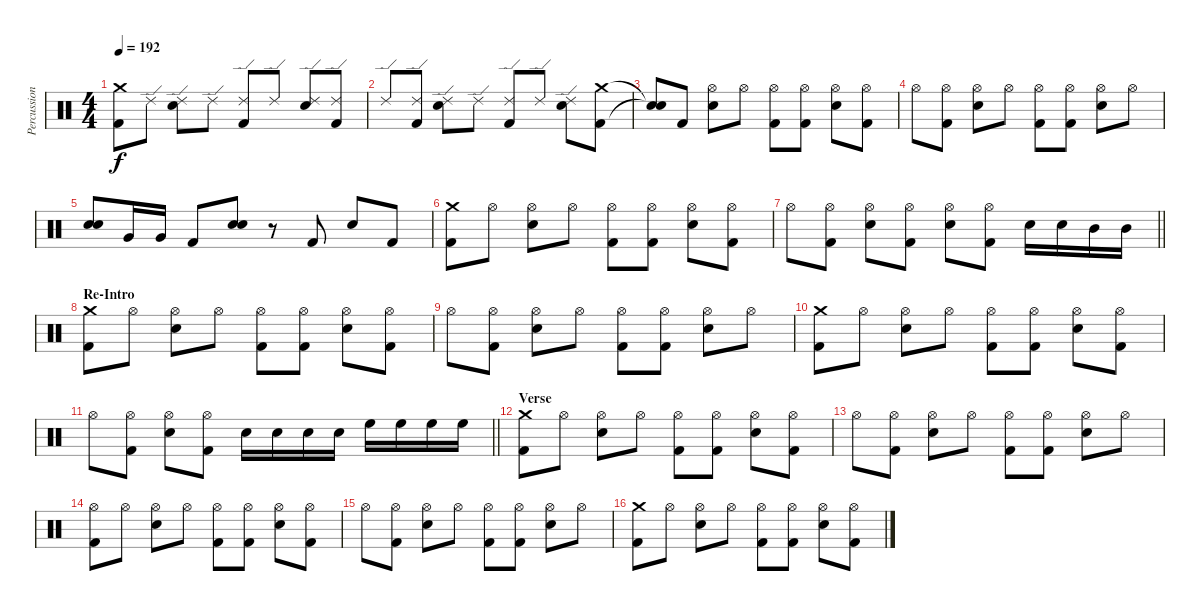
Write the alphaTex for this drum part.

\track ("Percussion" "Percussion") {instrument percussion}
\staff {score}
\articulation defaults
\ts (4 4)
\tempo 192
\clef neutral
\ks c
("Crash medium (hit)" "Kick (hit) 2").8{dy f} "Ride (edge) 2".8 ("Ride (edge) 2" "Electric Snare (hit)").8 "Ride (edge) 2".8 ("Ride (edge) 2" "Kick (hit) 2").8 "Ride (edge) 2".8 ("Ride (edge) 2" "Electric Snare (hit)").8 ("Ride (edge) 2" "Kick (hit) 2").8 |
"Ride (edge) 2".8 ("Ride (edge) 2" "Kick (hit) 2").8 ("Ride (edge) 2" "Electric Snare (hit)").8 "Ride (edge) 2".8 ("Ride (edge) 2" "Kick (hit) 2").8 "Ride (edge) 2".8 ("Ride (edge) 2" "Electric Snare (hit)").8 ("Crash medium (hit)" "Kick (hit) 2").8 |
("Snare (hit)"{t} "Snare (hit)"{t}).8 "Kick (hit) 2".8 ("Hi-Hat (open)" "Electric Snare (hit)").8 "Hi-Hat (open)".8 ("Hi-Hat (open)" "Kick (hit) 2").8 ("Hi-Hat (open)" "Kick (hit) 2").8 ("Hi-Hat (open)" "Electric Snare (hit)").8 ("Hi-Hat (open)" "Kick (hit) 2").8 |
"Hi-Hat (open)".8 ("Hi-Hat (open)" "Kick (hit) 2").8 ("Hi-Hat (open)" "Electric Snare (hit)").8 "Hi-Hat (open)".8 ("Hi-Hat (open)" "Kick (hit) 2").8 ("Hi-Hat (open)" "Kick (hit) 2").8 ("Hi-Hat (open)" "Electric Snare (hit)").8 "Hi-Hat (open)".8 |
("Electric Snare (hit)" "Electric Snare (hit)").8 "Very Low Tom (hit)".16 "Very Low Tom (hit)".16 "Kick (hit) 2".8 ("Electric Snare (hit)" "Electric Snare (hit)").8 r.8 "Kick (hit) 2".8 "Electric Snare (hit)".8 "Kick (hit) 2".8 |
("Crash medium (hit)" "Kick (hit) 2").8 "Hi-Hat (open)".8 ("Hi-Hat (open)" "Electric Snare (hit)").8 "Hi-Hat (open)".8 ("Hi-Hat (open)" "Kick (hit) 2").8 ("Hi-Hat (open)" "Kick (hit) 2").8 ("Hi-Hat (open)" "Electric Snare (hit)").8 ("Hi-Hat (open)" "Kick (hit) 2").8 |
\barLineRight lightlight "Hi-Hat (open)".8
("Hi-Hat (open)" "Kick (hit) 2").8 ("Hi-Hat (open)" "Electric Snare (hit)").8 ("Hi-Hat (open)" "Kick (hit) 2").8 ("Hi-Hat (open)" "Electric Snare (hit)").8 ("Hi-Hat (open)" "Kick (hit) 2").8 "Electric Snare (hit)".16 "Electric Snare (hit)".16 "Mid Tom (hit)".16 "Mid Tom (hit)".16 |
\section ("" "Re-Intro")
("Crash medium (hit)" "Kick (hit) 2").8 "Hi-Hat (open)".8 ("Hi-Hat (open)" "Electric Snare (hit)").8 "Hi-Hat (open)".8 ("Hi-Hat (open)" "Kick (hit) 2").8 ("Hi-Hat (open)" "Kick (hit) 2").8 ("Hi-Hat (open)" "Electric Snare (hit)").8 ("Hi-Hat (open)" "Kick (hit) 2").8 |
"Hi-Hat (open)".8 ("Hi-Hat (open)" "Kick (hit) 2").8 ("Hi-Hat (open)" "Electric Snare (hit)").8 "Hi-Hat (open)".8 ("Hi-Hat (open)" "Kick (hit) 2").8 ("Hi-Hat (open)" "Kick (hit) 2").8 ("Hi-Hat (open)" "Electric Snare (hit)").8 "Hi-Hat (open)".8 |
("Crash medium (hit)" "Kick (hit) 2").8 "Hi-Hat (open)".8 ("Hi-Hat (open)" "Electric Snare (hit)").8 "Hi-Hat (open)".8 ("Hi-Hat (open)" "Kick (hit) 2").8 ("Hi-Hat (open)" "Kick (hit) 2").8 ("Hi-Hat (open)" "Electric Snare (hit)").8 ("Hi-Hat (open)" "Kick (hit) 2").8 |
\barLineRight lightlight "Hi-Hat (open)".8
("Hi-Hat (open)" "Kick (hit) 2").8 ("Hi-Hat (open)" "Electric Snare (hit)").8 ("Hi-Hat (open)" "Kick (hit) 2").8 "Electric Snare (hit)".16 "Electric Snare (hit)".16 "Electric Snare (hit)".16 "Electric Snare (hit)".16 "High Floor Tom (hit)".16 "High Floor Tom (hit)".16 "High Floor Tom (hit)".16 "High Floor Tom (hit)".16 |
\section ("" "Verse")
("Crash medium (hit)" "Kick (hit) 2").8 "Hi-Hat (open)".8 ("Hi-Hat (open)" "Electric Snare (hit)").8 "Hi-Hat (open)".8 ("Hi-Hat (open)" "Kick (hit) 2").8 ("Hi-Hat (open)" "Kick (hit) 2").8 ("Hi-Hat (open)" "Electric Snare (hit)").8 ("Hi-Hat (open)" "Kick (hit) 2").8 |
"Hi-Hat (open)".8 ("Hi-Hat (open)" "Kick (hit) 2").8 ("Hi-Hat (open)" "Electric Snare (hit)").8 "Hi-Hat (open)".8 ("Hi-Hat (open)" "Kick (hit) 2").8 ("Hi-Hat (open)" "Kick (hit) 2").8 ("Hi-Hat (open)" "Electric Snare (hit)").8 "Hi-Hat (open)".8 |
("Hi-Hat (open)" "Kick (hit) 2").8 "Hi-Hat (open)".8 ("Hi-Hat (open)" "Electric Snare (hit)").8 "Hi-Hat (open)".8 ("Hi-Hat (open)" "Kick (hit) 2").8 ("Hi-Hat (open)" "Kick (hit) 2").8 ("Hi-Hat (open)" "Electric Snare (hit)").8 ("Hi-Hat (open)" "Kick (hit) 2").8 |
"Hi-Hat (open)".8 ("Hi-Hat (open)" "Kick (hit) 2").8 ("Hi-Hat (open)" "Electric Snare (hit)").8 "Hi-Hat (open)".8 ("Hi-Hat (open)" "Kick (hit) 2").8 ("Hi-Hat (open)" "Kick (hit) 2").8 ("Hi-Hat (open)" "Electric Snare (hit)").8 "Hi-Hat (open)".8 |
("Crash medium (hit)" "Kick (hit) 2").8 "Hi-Hat (open)".8 ("Hi-Hat (open)" "Electric Snare (hit)").8 "Hi-Hat (open)".8 ("Hi-Hat (open)" "Kick (hit) 2").8 ("Hi-Hat (open)" "Kick (hit) 2").8 ("Hi-Hat (open)" "Electric Snare (hit)").8 ("Hi-Hat (open)" "Kick (hit) 2").8
